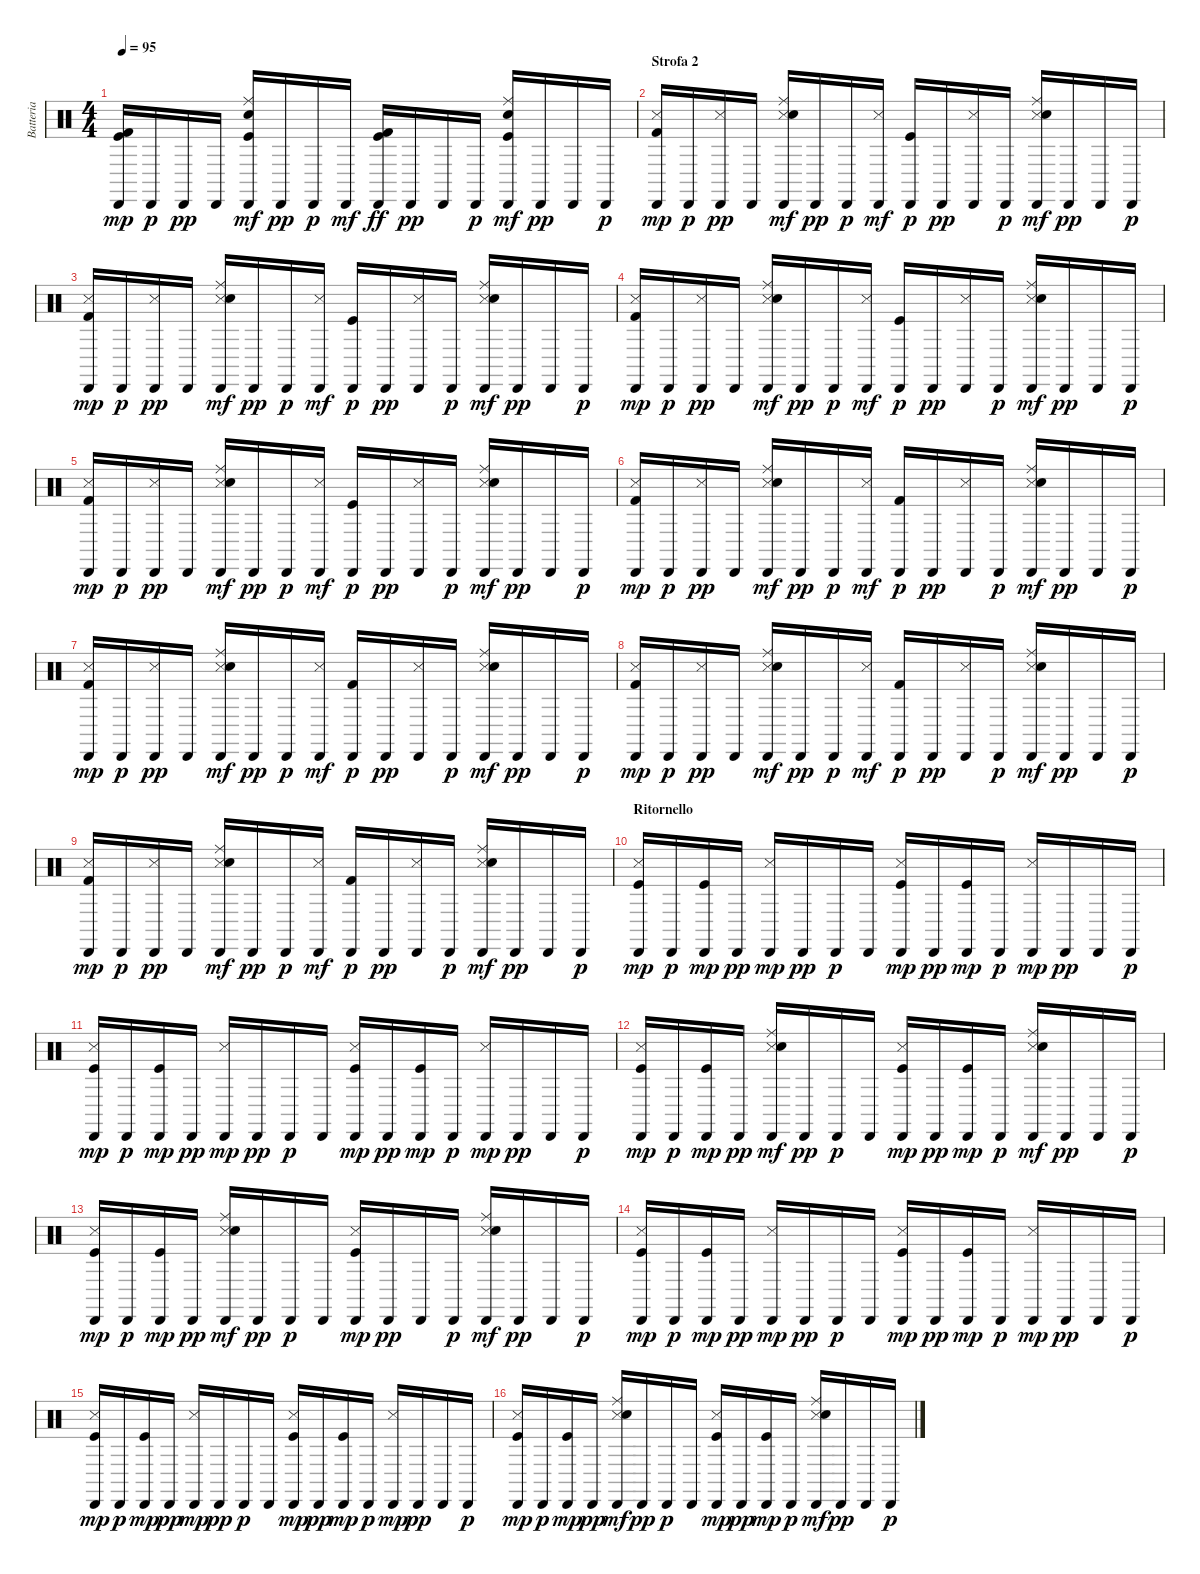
\track ("Batteria" "Batteria") {instrument percussion}
\staff {score}
\articulation defaults
\ts (4 4)
\tempo 95
\clef neutral
\ks c
("Cabasa (hit)" "Kick (hit)" "Kick (hit) 2").16{dy mp} "Cabasa (hit)".16{dy p} "Cabasa (hit)".16{dy pp} "Cabasa (hit)".16 ("Cabasa (hit)" "Kick (hit)" "Snare (hit) 2" "Ride (middle)").16{dy mf} "Cabasa (hit)".16{dy pp} "Cabasa (hit)".16{dy p} "Cabasa (hit)".16{dy mf} ("Cabasa (hit)" "Kick (hit)" "Kick (hit) 2").16{dy ff} "Cabasa (hit)".16{dy pp} "Cabasa (hit)".16 "Cabasa (hit)".16{dy p} ("Cabasa (hit)" "Kick (hit)" "Snare (hit) 2" "Ride (middle)").16{dy mf} "Cabasa (hit)".16{dy pp} "Cabasa (hit)".16 "Cabasa (hit)".16{dy p} |
\section ("" "Strofa 2")
("Metronome (hit)" "Cabasa (hit)" "Kick (hit) 2").16{dy mp} "Cabasa (hit)".16{dy p} ("Metronome (hit)" "Cabasa (hit)").16{dy pp} "Cabasa (hit)".16 ("Snare (side stick) 3" "Cabasa (hit)" "Snare (hit) 2" "Ride (middle)").16{dy mf} "Cabasa (hit)".16{dy pp} "Cabasa (hit)".16{dy p} ("Metronome (hit)" "Cabasa (hit)").16{dy mf} ("Cabasa (hit)" "Kick (hit)").16{dy p} "Cabasa (hit)".16{dy pp} ("Metronome (hit)" "Cabasa (hit)").16 "Cabasa (hit)".16{dy p} ("Snare (side stick) 3" "Cabasa (hit)" "Snare (hit) 2" "Ride (middle)").16{dy mf} "Cabasa (hit)".16{dy pp} "Cabasa (hit)".16 "Cabasa (hit)".16{dy p} |
("Metronome (hit)" "Cabasa (hit)" "Kick (hit) 2").16{dy mp} "Cabasa (hit)".16{dy p} ("Metronome (hit)" "Cabasa (hit)").16{dy pp} "Cabasa (hit)".16 ("Snare (side stick) 3" "Cabasa (hit)" "Snare (hit) 2" "Ride (middle)").16{dy mf} "Cabasa (hit)".16{dy pp} "Cabasa (hit)".16{dy p} ("Metronome (hit)" "Cabasa (hit)").16{dy mf} ("Cabasa (hit)" "Kick (hit)").16{dy p} "Cabasa (hit)".16{dy pp} ("Metronome (hit)" "Cabasa (hit)").16 "Cabasa (hit)".16{dy p} ("Snare (side stick) 3" "Cabasa (hit)" "Snare (hit) 2" "Ride (middle)").16{dy mf} "Cabasa (hit)".16{dy pp} "Cabasa (hit)".16 "Cabasa (hit)".16{dy p} |
("Metronome (hit)" "Cabasa (hit)" "Kick (hit) 2").16{dy mp} "Cabasa (hit)".16{dy p} ("Metronome (hit)" "Cabasa (hit)").16{dy pp} "Cabasa (hit)".16 ("Snare (side stick) 3" "Cabasa (hit)" "Snare (hit) 2" "Ride (middle)").16{dy mf} "Cabasa (hit)".16{dy pp} "Cabasa (hit)".16{dy p} ("Metronome (hit)" "Cabasa (hit)").16{dy mf} ("Cabasa (hit)" "Kick (hit)").16{dy p} "Cabasa (hit)".16{dy pp} ("Metronome (hit)" "Cabasa (hit)").16 "Cabasa (hit)".16{dy p} ("Snare (side stick) 3" "Cabasa (hit)" "Snare (hit) 2" "Ride (middle)").16{dy mf} "Cabasa (hit)".16{dy pp} "Cabasa (hit)".16 "Cabasa (hit)".16{dy p} |
("Metronome (hit)" "Cabasa (hit)" "Kick (hit) 2").16{dy mp} "Cabasa (hit)".16{dy p} ("Metronome (hit)" "Cabasa (hit)").16{dy pp} "Cabasa (hit)".16 ("Snare (side stick) 3" "Cabasa (hit)" "Snare (hit) 2" "Ride (middle)").16{dy mf} "Cabasa (hit)".16{dy pp} "Cabasa (hit)".16{dy p} ("Metronome (hit)" "Cabasa (hit)").16{dy mf} ("Cabasa (hit)" "Kick (hit)").16{dy p} "Cabasa (hit)".16{dy pp} ("Metronome (hit)" "Cabasa (hit)").16 "Cabasa (hit)".16{dy p} ("Snare (side stick) 3" "Cabasa (hit)" "Snare (hit) 2" "Ride (middle)").16{dy mf} "Cabasa (hit)".16{dy pp} "Cabasa (hit)".16 "Cabasa (hit)".16{dy p} |
("Metronome (hit)" "Cabasa (hit)" "Kick (hit) 2").16{dy mp} "Cabasa (hit)".16{dy p} ("Metronome (hit)" "Cabasa (hit)").16{dy pp} "Cabasa (hit)".16 ("Snare (side stick) 3" "Cabasa (hit)" "Snare (hit) 2" "Ride (middle)").16{dy mf} "Cabasa (hit)".16{dy pp} "Cabasa (hit)".16{dy p} ("Metronome (hit)" "Cabasa (hit)").16{dy mf} ("Cabasa (hit)" "Kick (hit) 2").16{dy p} "Cabasa (hit)".16{dy pp} ("Metronome (hit)" "Cabasa (hit)").16 "Cabasa (hit)".16{dy p} ("Snare (side stick) 3" "Cabasa (hit)" "Snare (hit) 2" "Ride (middle)").16{dy mf} "Cabasa (hit)".16{dy pp} "Cabasa (hit)".16 "Cabasa (hit)".16{dy p} |
("Metronome (hit)" "Cabasa (hit)" "Kick (hit) 2").16{dy mp} "Cabasa (hit)".16{dy p} ("Metronome (hit)" "Cabasa (hit)").16{dy pp} "Cabasa (hit)".16 ("Snare (side stick) 3" "Cabasa (hit)" "Snare (hit) 2" "Ride (middle)").16{dy mf} "Cabasa (hit)".16{dy pp} "Cabasa (hit)".16{dy p} ("Metronome (hit)" "Cabasa (hit)").16{dy mf} ("Cabasa (hit)" "Kick (hit) 2").16{dy p} "Cabasa (hit)".16{dy pp} ("Metronome (hit)" "Cabasa (hit)").16 "Cabasa (hit)".16{dy p} ("Snare (side stick) 3" "Cabasa (hit)" "Snare (hit) 2" "Ride (middle)").16{dy mf} "Cabasa (hit)".16{dy pp} "Cabasa (hit)".16 "Cabasa (hit)".16{dy p} |
("Metronome (hit)" "Cabasa (hit)" "Kick (hit) 2").16{dy mp} "Cabasa (hit)".16{dy p} ("Metronome (hit)" "Cabasa (hit)").16{dy pp} "Cabasa (hit)".16 ("Snare (side stick) 3" "Cabasa (hit)" "Snare (hit) 2" "Ride (middle)").16{dy mf} "Cabasa (hit)".16{dy pp} "Cabasa (hit)".16{dy p} ("Metronome (hit)" "Cabasa (hit)").16{dy mf} ("Cabasa (hit)" "Kick (hit) 2").16{dy p} "Cabasa (hit)".16{dy pp} ("Metronome (hit)" "Cabasa (hit)").16 "Cabasa (hit)".16{dy p} ("Snare (side stick) 3" "Cabasa (hit)" "Snare (hit) 2" "Ride (middle)").16{dy mf} "Cabasa (hit)".16{dy pp} "Cabasa (hit)".16 "Cabasa (hit)".16{dy p} |
("Metronome (hit)" "Cabasa (hit)" "Kick (hit) 2").16{dy mp} "Cabasa (hit)".16{dy p} ("Metronome (hit)" "Cabasa (hit)").16{dy pp} "Cabasa (hit)".16 ("Snare (side stick) 3" "Cabasa (hit)" "Snare (hit) 2" "Ride (middle)").16{dy mf} "Cabasa (hit)".16{dy pp} "Cabasa (hit)".16{dy p} ("Metronome (hit)" "Cabasa (hit)").16{dy mf} ("Cabasa (hit)" "Kick (hit) 2").16{dy p} "Cabasa (hit)".16{dy pp} ("Metronome (hit)" "Cabasa (hit)").16 "Cabasa (hit)".16{dy p} ("Snare (side stick) 3" "Cabasa (hit)" "Snare (hit) 2" "Ride (middle)").16{dy mf} "Cabasa (hit)".16{dy pp} "Cabasa (hit)".16 "Cabasa (hit)".16{dy p} |
\section ("" "Ritornello")
("Metronome (hit)" "Cabasa (hit)" "Kick (hit)").16{dy mp} "Cabasa (hit)".16{dy p} ("Cabasa (hit)" "Kick (hit)").16{dy mp} "Cabasa (hit)".16{dy pp} ("Metronome (hit)" "Cabasa (hit)").16{dy mp} "Cabasa (hit)".16{dy pp} "Cabasa (hit)".16{dy p} "Cabasa (hit)".16 ("Metronome (hit)" "Cabasa (hit)" "Kick (hit)").16{dy mp} "Cabasa (hit)".16{dy pp} ("Cabasa (hit)" "Kick (hit)").16{dy mp} "Cabasa (hit)".16{dy p} ("Metronome (hit)" "Cabasa (hit)").16{dy mp} "Cabasa (hit)".16{dy pp} "Cabasa (hit)".16 "Cabasa (hit)".16{dy p} |
("Metronome (hit)" "Cabasa (hit)" "Kick (hit)").16{dy mp} "Cabasa (hit)".16{dy p} ("Cabasa (hit)" "Kick (hit)").16{dy mp} "Cabasa (hit)".16{dy pp} ("Metronome (hit)" "Cabasa (hit)").16{dy mp} "Cabasa (hit)".16{dy pp} "Cabasa (hit)".16{dy p} "Cabasa (hit)".16 ("Metronome (hit)" "Cabasa (hit)" "Kick (hit)").16{dy mp} "Cabasa (hit)".16{dy pp} ("Cabasa (hit)" "Kick (hit)").16{dy mp} "Cabasa (hit)".16{dy p} ("Metronome (hit)" "Cabasa (hit)").16{dy mp} "Cabasa (hit)".16{dy pp} "Cabasa (hit)".16 "Cabasa (hit)".16{dy p} |
("Metronome (hit)" "Cabasa (hit)" "Kick (hit)").16{dy mp} "Cabasa (hit)".16{dy p} ("Cabasa (hit)" "Kick (hit)").16{dy mp} "Cabasa (hit)".16{dy pp} ("Metronome (hit)" "Cabasa (hit)" "Snare (hit) 2" "Ride (middle)").16{dy mf} "Cabasa (hit)".16{dy pp} "Cabasa (hit)".16{dy p} "Cabasa (hit)".16 ("Metronome (hit)" "Cabasa (hit)" "Kick (hit)").16{dy mp} "Cabasa (hit)".16{dy pp} ("Cabasa (hit)" "Kick (hit)").16{dy mp} "Cabasa (hit)".16{dy p} ("Metronome (hit)" "Cabasa (hit)" "Snare (hit) 2" "Ride (middle)").16{dy mf} "Cabasa (hit)".16{dy pp} "Cabasa (hit)".16 "Cabasa (hit)".16{dy p} |
("Metronome (hit)" "Cabasa (hit)" "Kick (hit)").16{dy mp} "Cabasa (hit)".16{dy p} ("Cabasa (hit)" "Kick (hit)").16{dy mp} "Cabasa (hit)".16{dy pp} ("Metronome (hit)" "Cabasa (hit)" "Snare (hit) 2" "Ride (middle)").16{dy mf} "Cabasa (hit)".16{dy pp} "Cabasa (hit)".16{dy p} "Cabasa (hit)".16 ("Metronome (hit)" "Cabasa (hit)" "Kick (hit)").16{dy mp} "Cabasa (hit)".16{dy pp} "Cabasa (hit)".16 "Cabasa (hit)".16{dy p} ("Metronome (hit)" "Cabasa (hit)" "Snare (hit) 2" "Ride (middle)").16{dy mf} "Cabasa (hit)".16{dy pp} "Cabasa (hit)".16 "Cabasa (hit)".16{dy p} |
("Metronome (hit)" "Cabasa (hit)" "Kick (hit)").16{dy mp} "Cabasa (hit)".16{dy p} ("Cabasa (hit)" "Kick (hit)").16{dy mp} "Cabasa (hit)".16{dy pp} ("Metronome (hit)" "Cabasa (hit)").16{dy mp} "Cabasa (hit)".16{dy pp} "Cabasa (hit)".16{dy p} "Cabasa (hit)".16 ("Metronome (hit)" "Cabasa (hit)" "Kick (hit)").16{dy mp} "Cabasa (hit)".16{dy pp} ("Cabasa (hit)" "Kick (hit)").16{dy mp} "Cabasa (hit)".16{dy p} ("Metronome (hit)" "Cabasa (hit)").16{dy mp} "Cabasa (hit)".16{dy pp} "Cabasa (hit)".16 "Cabasa (hit)".16{dy p} |
("Metronome (hit)" "Cabasa (hit)" "Kick (hit)").16{dy mp} "Cabasa (hit)".16{dy p} ("Cabasa (hit)" "Kick (hit)").16{dy mp} "Cabasa (hit)".16{dy pp} ("Metronome (hit)" "Cabasa (hit)").16{dy mp} "Cabasa (hit)".16{dy pp} "Cabasa (hit)".16{dy p} "Cabasa (hit)".16 ("Metronome (hit)" "Cabasa (hit)" "Kick (hit)").16{dy mp} "Cabasa (hit)".16{dy pp} ("Cabasa (hit)" "Kick (hit)").16{dy mp} "Cabasa (hit)".16{dy p} ("Metronome (hit)" "Cabasa (hit)").16{dy mp} "Cabasa (hit)".16{dy pp} "Cabasa (hit)".16 "Cabasa (hit)".16{dy p} |
("Metronome (hit)" "Cabasa (hit)" "Kick (hit)").16{dy mp} "Cabasa (hit)".16{dy p} ("Cabasa (hit)" "Kick (hit)").16{dy mp} "Cabasa (hit)".16{dy pp} ("Metronome (hit)" "Cabasa (hit)" "Snare (hit) 2" "Ride (middle)").16{dy mf} "Cabasa (hit)".16{dy pp} "Cabasa (hit)".16{dy p} "Cabasa (hit)".16 ("Metronome (hit)" "Cabasa (hit)" "Kick (hit)").16{dy mp} "Cabasa (hit)".16{dy pp} ("Cabasa (hit)" "Kick (hit)").16{dy mp} "Cabasa (hit)".16{dy p} ("Metronome (hit)" "Cabasa (hit)" "Snare (hit) 2" "Ride (middle)").16{dy mf} "Cabasa (hit)".16{dy pp} "Cabasa (hit)".16 "Cabasa (hit)".16{dy p}
